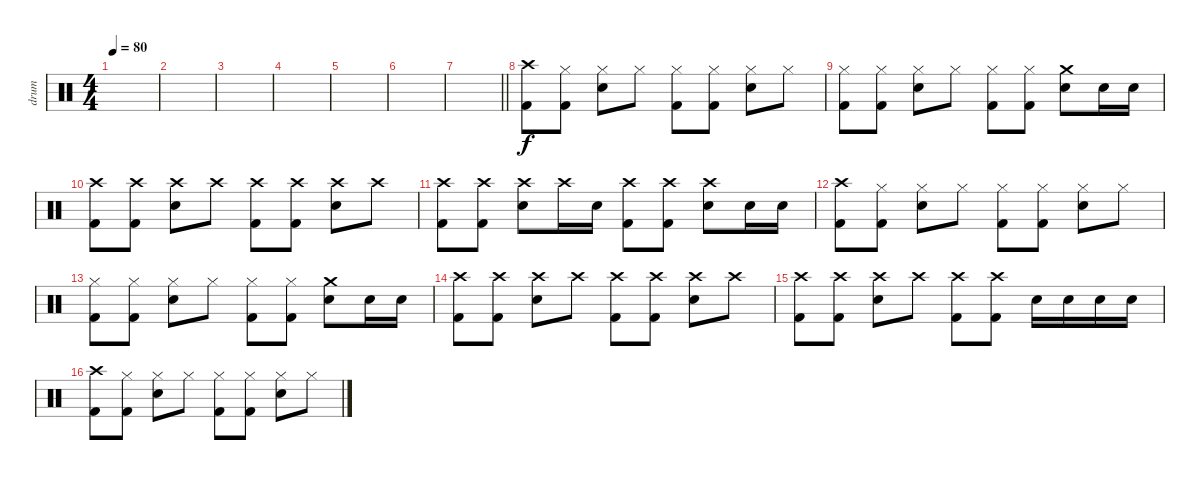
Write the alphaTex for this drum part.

\track ("drum" "drum") {instrument percussion}
\staff {score}
\articulation defaults
\ts (4 4)
\tempo 80
\clef neutral
\ks c
|
|
|
|
|
|
\barLineRight lightlight
|
\section ("" "")
("Crash high (hit)" "Kick (hit) 2").8 ("Hi-Hat (closed)" "Kick (hit) 2").8 ("Hi-Hat (closed)" "Snare (hit) 2").8 "Hi-Hat (closed)".8 ("Hi-Hat (closed)" "Kick (hit) 2").8 ("Hi-Hat (closed)" "Kick (hit) 2").8 ("Hi-Hat (closed)" "Snare (hit) 2").8 "Hi-Hat (closed)".8 |
("Hi-Hat (closed)" "Kick (hit) 2").8 ("Hi-Hat (closed)" "Kick (hit) 2").8 ("Hi-Hat (closed)" "Snare (hit) 2").8 "Hi-Hat (closed)".8 ("Hi-Hat (closed)" "Kick (hit) 2").8 ("Hi-Hat (closed)" "Kick (hit) 2").8 ("Crash medium (hit)" "Snare (hit) 2").8 "Snare (hit) 2".16 "Snare (hit) 2".16 |
("Crash high (hit)" "Kick (hit) 2").8 ("Crash high (hit)" "Kick (hit) 2").8 ("Crash high (hit)" "Snare (hit) 2").8 "Crash high (hit)".8 ("Crash high (hit)" "Kick (hit) 2").8 ("Crash high (hit)" "Kick (hit) 2").8 ("Crash high (hit)" "Snare (hit) 2").8 "Crash high (hit)".8 |
("Crash high (hit)" "Kick (hit) 2").8 ("Crash high (hit)" "Kick (hit) 2").8 ("Crash high (hit)" "Snare (hit) 2").8 "Crash high (hit)".16 "Snare (hit) 2".16 ("Crash high (hit)" "Kick (hit) 2").8 ("Crash high (hit)" "Kick (hit) 2").8 ("Crash high (hit)" "Snare (hit) 2").8 "Snare (hit) 2".16 "Snare (hit) 2".16 |
("Crash high (hit)" "Kick (hit) 2").8 ("Hi-Hat (closed)" "Kick (hit) 2").8 ("Hi-Hat (closed)" "Snare (hit) 2").8 "Hi-Hat (closed)".8 ("Hi-Hat (closed)" "Kick (hit) 2").8 ("Hi-Hat (closed)" "Kick (hit) 2").8 ("Hi-Hat (closed)" "Snare (hit) 2").8 "Hi-Hat (closed)".8 |
("Hi-Hat (closed)" "Kick (hit) 2").8 ("Hi-Hat (closed)" "Kick (hit) 2").8 ("Hi-Hat (closed)" "Snare (hit) 2").8 "Hi-Hat (closed)".8 ("Hi-Hat (closed)" "Kick (hit) 2").8 ("Hi-Hat (closed)" "Kick (hit) 2").8 ("Crash medium (hit)" "Snare (hit) 2").8 "Snare (hit) 2".16 "Snare (hit) 2".16 |
("Crash high (hit)" "Kick (hit) 2").8 ("Crash high (hit)" "Kick (hit) 2").8 ("Crash high (hit)" "Snare (hit) 2").8 "Crash high (hit)".8 ("Crash high (hit)" "Kick (hit) 2").8 ("Crash high (hit)" "Kick (hit) 2").8 ("Crash high (hit)" "Snare (hit) 2").8 "Crash high (hit)".8 |
("Crash high (hit)" "Kick (hit) 2").8 ("Crash high (hit)" "Kick (hit) 2").8 ("Crash high (hit)" "Snare (hit) 2").8 "Crash high (hit)".8 ("Crash high (hit)" "Kick (hit) 2").8 ("Crash high (hit)" "Kick (hit) 2").8 "Snare (hit) 2".16 "Snare (hit) 2".16 "Snare (hit) 2".16 "Snare (hit) 2".16 |
("Crash high (hit)" "Kick (hit) 2").8 ("Hi-Hat (closed)" "Kick (hit) 2").8 ("Hi-Hat (closed)" "Snare (hit) 2").8 "Hi-Hat (closed)".8 ("Hi-Hat (closed)" "Kick (hit) 2").8 ("Hi-Hat (closed)" "Kick (hit) 2").8 ("Hi-Hat (closed)" "Snare (hit) 2").8 "Hi-Hat (closed)".8
